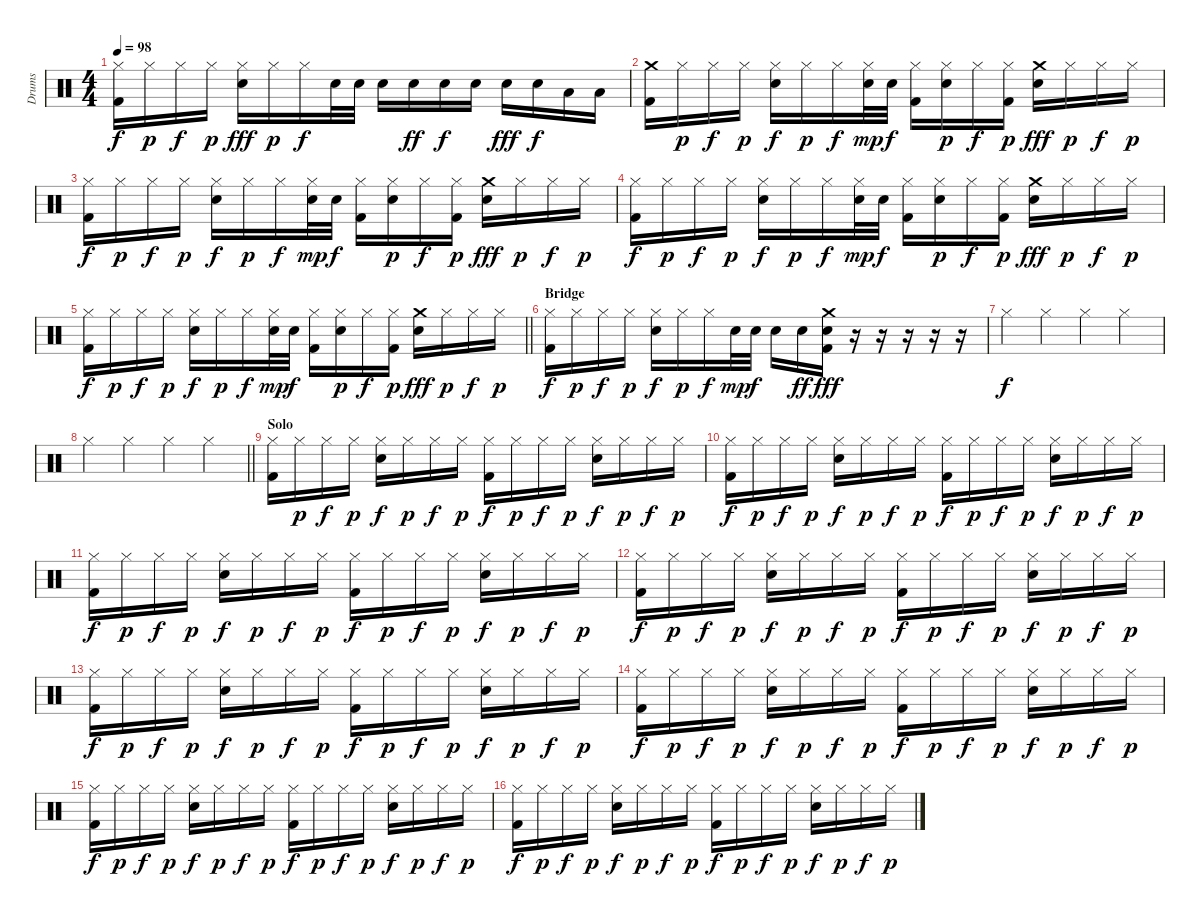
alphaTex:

\track ("Drums" "Drums") {instrument percussion}
\staff {score}
\articulation defaults
\ts (4 4)
\tempo 98
\clef neutral
\ks c
("Hi-Hat (closed)" "Kick (hit) 2").16{dy f} "Hi-Hat (closed)".16{dy p} "Hi-Hat (closed)".16{dy f} "Hi-Hat (closed)".16{dy p} ("Hi-Hat (closed)" "Electric Snare (hit)").16{dy fff} "Hi-Hat (closed)".16{dy p} "Hi-Hat (closed)".16{dy f} "Snare (hit) 2".32 "Snare (hit) 2".32 "Electric Snare (hit)".16 "Electric Snare (hit)".16{dy ff} "Electric Snare (hit)".16{dy f} "Electric Snare (hit)".16 "Electric Snare (hit)".16{dy fff} "Electric Snare (hit)".16{dy f} "Low Tom (hit)".16 "Low Tom (hit)".16 |
("Crash medium (hit)" "Kick (hit) 2").16 "Hi-Hat (closed)".16{dy p} "Hi-Hat (closed)".16{dy f} "Hi-Hat (closed)".16{dy p} ("Hi-Hat (closed)" "Electric Snare (hit)").16{dy f} "Hi-Hat (closed)".16{dy p} "Hi-Hat (closed)".16{dy f} ("Hi-Hat (closed)" "Electric Snare (hit)").32{dy mp} "Electric Snare (hit)".32{dy f} ("Hi-Hat (closed)" "Kick (hit) 2").16 ("Hi-Hat (closed)" "Electric Snare (hit)").16{dy p} "Hi-Hat (closed)".16{dy f} ("Hi-Hat (closed)" "Kick (hit) 2").16{dy p} ("Crash medium (hit)" "Electric Snare (hit)").16{dy fff} "Hi-Hat (closed)".16{dy p} "Hi-Hat (closed)".16{dy f} "Hi-Hat (closed)".16{dy p} |
("Hi-Hat (closed)" "Kick (hit) 2").16{dy f} "Hi-Hat (closed)".16{dy p} "Hi-Hat (closed)".16{dy f} "Hi-Hat (closed)".16{dy p} ("Hi-Hat (closed)" "Electric Snare (hit)").16{dy f} "Hi-Hat (closed)".16{dy p} "Hi-Hat (closed)".16{dy f} ("Hi-Hat (closed)" "Electric Snare (hit)").32{dy mp} "Electric Snare (hit)".32{dy f} ("Hi-Hat (closed)" "Kick (hit) 2").16 ("Hi-Hat (closed)" "Electric Snare (hit)").16{dy p} "Hi-Hat (closed)".16{dy f} ("Hi-Hat (closed)" "Kick (hit) 2").16{dy p} ("Crash medium (hit)" "Electric Snare (hit)").16{dy fff} "Hi-Hat (closed)".16{dy p} "Hi-Hat (closed)".16{dy f} "Hi-Hat (closed)".16{dy p} |
("Hi-Hat (closed)" "Kick (hit) 2").16{dy f} "Hi-Hat (closed)".16{dy p} "Hi-Hat (closed)".16{dy f} "Hi-Hat (closed)".16{dy p} ("Hi-Hat (closed)" "Electric Snare (hit)").16{dy f} "Hi-Hat (closed)".16{dy p} "Hi-Hat (closed)".16{dy f} ("Hi-Hat (closed)" "Electric Snare (hit)").32{dy mp} "Electric Snare (hit)".32{dy f} ("Hi-Hat (closed)" "Kick (hit) 2").16 ("Hi-Hat (closed)" "Electric Snare (hit)").16{dy p} "Hi-Hat (closed)".16{dy f} ("Hi-Hat (closed)" "Kick (hit) 2").16{dy p} ("Crash medium (hit)" "Electric Snare (hit)").16{dy fff} "Hi-Hat (closed)".16{dy p} "Hi-Hat (closed)".16{dy f} "Hi-Hat (closed)".16{dy p} |
\barLineRight lightlight
("Hi-Hat (closed)" "Kick (hit) 2").16{dy f} "Hi-Hat (closed)".16{dy p} "Hi-Hat (closed)".16{dy f} "Hi-Hat (closed)".16{dy p} ("Hi-Hat (closed)" "Electric Snare (hit)").16{dy f} "Hi-Hat (closed)".16{dy p} "Hi-Hat (closed)".16{dy f} ("Hi-Hat (closed)" "Electric Snare (hit)").32{dy mp} "Electric Snare (hit)".32{dy f} ("Hi-Hat (closed)" "Kick (hit) 2").16 ("Hi-Hat (closed)" "Electric Snare (hit)").16{dy p} "Hi-Hat (closed)".16{dy f} ("Hi-Hat (closed)" "Kick (hit) 2").16{dy p} ("Crash medium (hit)" "Electric Snare (hit)").16{dy fff} "Hi-Hat (closed)".16{dy p} "Hi-Hat (closed)".16{dy f} "Hi-Hat (closed)".16{dy p} |
\section ("" "Bridge")
("Hi-Hat (closed)" "Kick (hit) 2").16{dy f} "Hi-Hat (closed)".16{dy p} "Hi-Hat (closed)".16{dy f} "Hi-Hat (closed)".16{dy p} ("Hi-Hat (closed)" "Electric Snare (hit)").16{dy f} "Hi-Hat (closed)".16{dy p} "Hi-Hat (closed)".16{dy f} "Electric Snare (hit)".32{dy mp} "Electric Snare (hit)".32{dy f} "Electric Snare (hit)".16 "Electric Snare (hit)".16{dy ff} ("Crash medium (hit)" "Electric Snare (hit)" "Kick (hit) 2").16{dy fff} r.16 r.16 r.16 r.16 r.16 |
"Hi-Hat (closed)".4{dy f} "Hi-Hat (closed)".4 "Hi-Hat (closed)".4 "Hi-Hat (closed)".4 |
\barLineRight lightlight "Hi-Hat (closed)".4 "Hi-Hat (closed)".4 "Hi-Hat (closed)".4 "Hi-Hat (closed)".4
|
\section ("" "Solo")
("Hi-Hat (closed)" "Kick (hit) 2").16 "Hi-Hat (closed)".16{dy p} "Hi-Hat (closed)".16{dy f} "Hi-Hat (closed)".16{dy p} ("Hi-Hat (closed)" "Electric Snare (hit)").16{dy f} "Hi-Hat (closed)".16{dy p} "Hi-Hat (closed)".16{dy f} "Hi-Hat (closed)".16{dy p} ("Hi-Hat (closed)" "Kick (hit) 2").16{dy f} "Hi-Hat (closed)".16{dy p} "Hi-Hat (closed)".16{dy f} "Hi-Hat (closed)".16{dy p} ("Hi-Hat (closed)" "Electric Snare (hit)").16{dy f} "Hi-Hat (closed)".16{dy p} "Hi-Hat (closed)".16{dy f} "Hi-Hat (closed)".16{dy p} |
("Hi-Hat (closed)" "Kick (hit) 2").16{dy f} "Hi-Hat (closed)".16{dy p} "Hi-Hat (closed)".16{dy f} "Hi-Hat (closed)".16{dy p} ("Hi-Hat (closed)" "Electric Snare (hit)").16{dy f} "Hi-Hat (closed)".16{dy p} "Hi-Hat (closed)".16{dy f} "Hi-Hat (closed)".16{dy p} ("Hi-Hat (closed)" "Kick (hit) 2").16{dy f} "Hi-Hat (closed)".16{dy p} "Hi-Hat (closed)".16{dy f} "Hi-Hat (closed)".16{dy p} ("Hi-Hat (closed)" "Electric Snare (hit)").16{dy f} "Hi-Hat (closed)".16{dy p} "Hi-Hat (closed)".16{dy f} "Hi-Hat (closed)".16{dy p} |
("Hi-Hat (closed)" "Kick (hit) 2").16{dy f} "Hi-Hat (closed)".16{dy p} "Hi-Hat (closed)".16{dy f} "Hi-Hat (closed)".16{dy p} ("Hi-Hat (closed)" "Electric Snare (hit)").16{dy f} "Hi-Hat (closed)".16{dy p} "Hi-Hat (closed)".16{dy f} "Hi-Hat (closed)".16{dy p} ("Hi-Hat (closed)" "Kick (hit) 2").16{dy f} "Hi-Hat (closed)".16{dy p} "Hi-Hat (closed)".16{dy f} "Hi-Hat (closed)".16{dy p} ("Hi-Hat (closed)" "Electric Snare (hit)").16{dy f} "Hi-Hat (closed)".16{dy p} "Hi-Hat (closed)".16{dy f} "Hi-Hat (closed)".16{dy p} |
("Hi-Hat (closed)" "Kick (hit) 2").16{dy f} "Hi-Hat (closed)".16{dy p} "Hi-Hat (closed)".16{dy f} "Hi-Hat (closed)".16{dy p} ("Hi-Hat (closed)" "Electric Snare (hit)").16{dy f} "Hi-Hat (closed)".16{dy p} "Hi-Hat (closed)".16{dy f} "Hi-Hat (closed)".16{dy p} ("Hi-Hat (closed)" "Kick (hit) 2").16{dy f} "Hi-Hat (closed)".16{dy p} "Hi-Hat (closed)".16{dy f} "Hi-Hat (closed)".16{dy p} ("Hi-Hat (closed)" "Electric Snare (hit)").16{dy f} "Hi-Hat (closed)".16{dy p} "Hi-Hat (closed)".16{dy f} "Hi-Hat (closed)".16{dy p} |
("Hi-Hat (closed)" "Kick (hit) 2").16{dy f} "Hi-Hat (closed)".16{dy p} "Hi-Hat (closed)".16{dy f} "Hi-Hat (closed)".16{dy p} ("Hi-Hat (closed)" "Electric Snare (hit)").16{dy f} "Hi-Hat (closed)".16{dy p} "Hi-Hat (closed)".16{dy f} "Hi-Hat (closed)".16{dy p} ("Hi-Hat (closed)" "Kick (hit) 2").16{dy f} "Hi-Hat (closed)".16{dy p} "Hi-Hat (closed)".16{dy f} "Hi-Hat (closed)".16{dy p} ("Hi-Hat (closed)" "Electric Snare (hit)").16{dy f} "Hi-Hat (closed)".16{dy p} "Hi-Hat (closed)".16{dy f} "Hi-Hat (closed)".16{dy p} |
("Hi-Hat (closed)" "Kick (hit) 2").16{dy f} "Hi-Hat (closed)".16{dy p} "Hi-Hat (closed)".16{dy f} "Hi-Hat (closed)".16{dy p} ("Hi-Hat (closed)" "Electric Snare (hit)").16{dy f} "Hi-Hat (closed)".16{dy p} "Hi-Hat (closed)".16{dy f} "Hi-Hat (closed)".16{dy p} ("Hi-Hat (closed)" "Kick (hit) 2").16{dy f} "Hi-Hat (closed)".16{dy p} "Hi-Hat (closed)".16{dy f} "Hi-Hat (closed)".16{dy p} ("Hi-Hat (closed)" "Electric Snare (hit)").16{dy f} "Hi-Hat (closed)".16{dy p} "Hi-Hat (closed)".16{dy f} "Hi-Hat (closed)".16{dy p} |
("Hi-Hat (closed)" "Kick (hit) 2").16{dy f} "Hi-Hat (closed)".16{dy p} "Hi-Hat (closed)".16{dy f} "Hi-Hat (closed)".16{dy p} ("Hi-Hat (closed)" "Electric Snare (hit)").16{dy f} "Hi-Hat (closed)".16{dy p} "Hi-Hat (closed)".16{dy f} "Hi-Hat (closed)".16{dy p} ("Hi-Hat (closed)" "Kick (hit) 2").16{dy f} "Hi-Hat (closed)".16{dy p} "Hi-Hat (closed)".16{dy f} "Hi-Hat (closed)".16{dy p} ("Hi-Hat (closed)" "Electric Snare (hit)").16{dy f} "Hi-Hat (closed)".16{dy p} "Hi-Hat (closed)".16{dy f} "Hi-Hat (closed)".16{dy p} |
("Hi-Hat (closed)" "Kick (hit) 2").16{dy f} "Hi-Hat (closed)".16{dy p} "Hi-Hat (closed)".16{dy f} "Hi-Hat (closed)".16{dy p} ("Hi-Hat (closed)" "Electric Snare (hit)").16{dy f} "Hi-Hat (closed)".16{dy p} "Hi-Hat (closed)".16{dy f} "Hi-Hat (closed)".16{dy p} ("Hi-Hat (closed)" "Kick (hit) 2").16{dy f} "Hi-Hat (closed)".16{dy p} "Hi-Hat (closed)".16{dy f} "Hi-Hat (closed)".16{dy p} ("Hi-Hat (closed)" "Electric Snare (hit)").16{dy f} "Hi-Hat (closed)".16{dy p} "Hi-Hat (closed)".16{dy f} "Hi-Hat (closed)".16{dy p}
